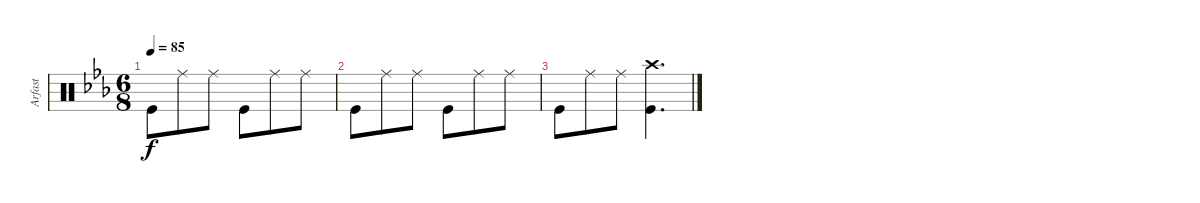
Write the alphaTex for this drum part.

\track ("Arfast" "Arfast") {instrument percussion}
\staff {score}
\articulation defaults
\ts (6 8)
\tempo 85
\clef neutral
\ks cminor "Kick (hit)".8{dy f} "Ride (middle)".8 "Ride (middle)".8 "Kick (hit)".8 "Ride (middle)".8 "Ride (middle)".8
|
"Kick (hit)".8 "Ride (middle)".8 "Ride (middle)".8 "Kick (hit)".8 "Ride (middle)".8 "Ride (middle)".8 |
"Kick (hit)".8 "Ride (middle)".8 "Ride (middle)".8 ("Crash high (hit)" "Kick (hit)").4{d}
